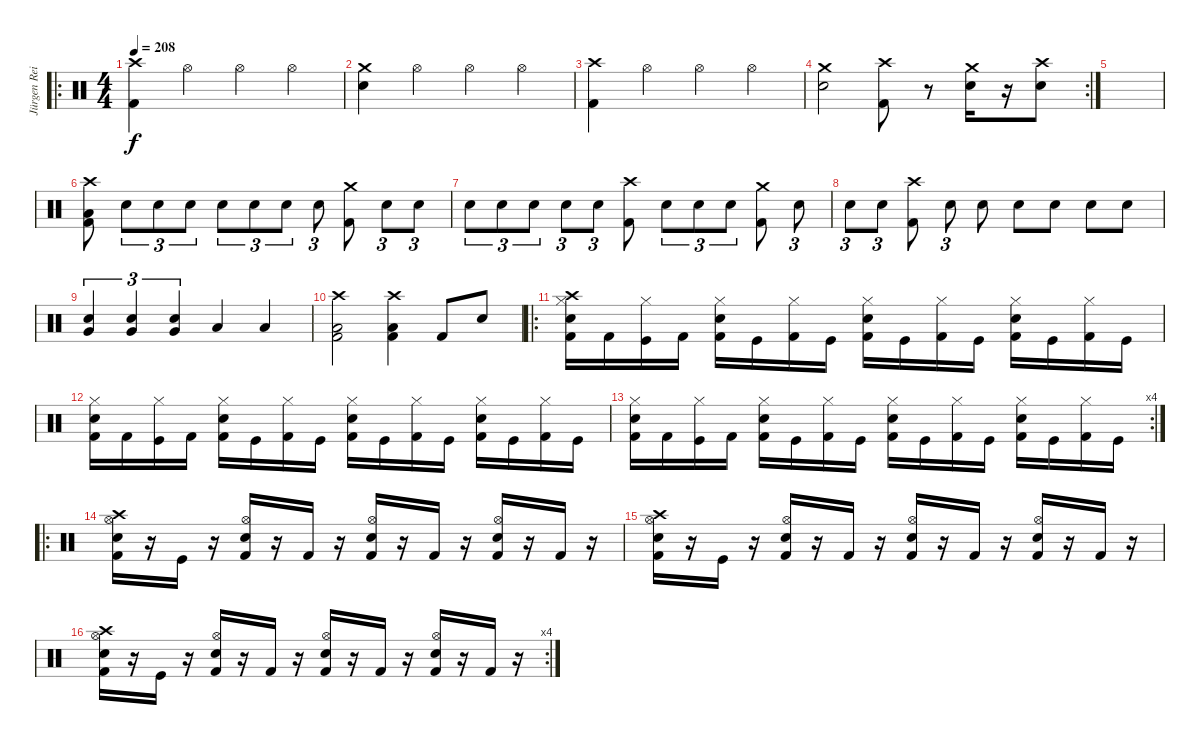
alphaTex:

\track ("Jürgen Reil" "Jürgen Rei") {instrument percussion}
\staff {score}
\articulation defaults
\ro
\ts (4 4)
\tempo 208
\clef neutral
\ks c
("Crash high (hit)" "Kick (hit) 2").4{dy f} "Hi-Hat (open)".4 "Hi-Hat (open)".4 "Hi-Hat (open)".4 |
("Crash medium (hit)" "Electric Snare (hit)").4 "Hi-Hat (open)".4 "Hi-Hat (open)".4 "Hi-Hat (open)".4 |
("Crash high (hit)" "Kick (hit) 2").4 "Hi-Hat (open)".4 "Hi-Hat (open)".4 "Hi-Hat (open)".4 |
\rc 2
("Crash medium (hit)" "Electric Snare (hit)").2 ("Crash high (hit)" "Kick (hit) 2").8 r.8 ("Crash medium (hit)" "Electric Snare (hit)").16 r.16 ("Crash high (hit)" "Electric Snare (hit)").8 |
|
("Crash high (hit)" "Low Floor Tom (hit)" "Kick (hit) 2").8 "Electric Snare (hit)".8{tu (3 2)} "Electric Snare (hit)".8{tu (3 2)} "Electric Snare (hit)".8{tu (3 2)} "Electric Snare (hit)".8{tu (3 2)} "Electric Snare (hit)".8{tu (3 2)} "Electric Snare (hit)".8{tu (3 2)} "Electric Snare (hit)".8{tu (3 2)} ("Crash medium (hit)" "Kick (hit) 2").8 "Electric Snare (hit)".8{tu (3 2)} "Electric Snare (hit)".8{tu (3 2)} |
"Electric Snare (hit)".8{tu (3 2)} "Electric Snare (hit)".8{tu (3 2)} "Electric Snare (hit)".8{tu (3 2)} "Electric Snare (hit)".8{tu (3 2)} "Electric Snare (hit)".8{tu (3 2)} ("Crash high (hit)" "Kick (hit) 2").8 "Electric Snare (hit)".8{tu (3 2)} "Electric Snare (hit)".8{tu (3 2)} "Electric Snare (hit)".8{tu (3 2)} ("Crash medium (hit)" "Kick (hit) 2").8 "Electric Snare (hit)".8{tu (3 2)} |
"Electric Snare (hit)".8{tu (3 2)} "Electric Snare (hit)".8{tu (3 2)} ("Crash high (hit)" "Kick (hit) 2").8 "Electric Snare (hit)".8{tu (3 2)} "Electric Snare (hit)".8 "Electric Snare (hit)".8 "Electric Snare (hit)".8 "Electric Snare (hit)".8 "Electric Snare (hit)".8 |
("Electric Snare (hit)" "Very Low Tom (hit)").4{tu (3 2)} ("Electric Snare (hit)" "Very Low Tom (hit)").4{tu (3 2)} ("Electric Snare (hit)" "Very Low Tom (hit)").4{tu (3 2)} "Low Floor Tom (hit)".4 "Low Floor Tom (hit)".4 |
("Crash high (hit)" "Low Floor Tom (hit)" "Kick (hit) 2").2 ("Crash high (hit)" "Low Floor Tom (hit)" "Kick (hit) 2").4 "Kick (hit) 2".8 "Electric Snare (hit)".8 |
\ro
("Hi-Hat (closed)" "Crash high (hit)" "Electric Snare (hit)" "Kick (hit) 2").16 "Kick (hit) 2".16 ("Hi-Hat (closed)" "Kick (hit)").16 "Kick (hit) 2".16 ("Hi-Hat (closed)" "Electric Snare (hit)" "Kick (hit) 2").16 "Kick (hit)".16 ("Hi-Hat (closed)" "Kick (hit) 2").16 "Kick (hit)".16 ("Hi-Hat (closed)" "Electric Snare (hit)" "Kick (hit) 2").16 "Kick (hit)".16 ("Hi-Hat (closed)" "Kick (hit) 2").16 "Kick (hit)".16 ("Hi-Hat (closed)" "Electric Snare (hit)" "Kick (hit) 2").16 "Kick (hit)".16 ("Hi-Hat (closed)" "Kick (hit) 2").16 "Kick (hit)".16 |
("Hi-Hat (closed)" "Electric Snare (hit)" "Kick (hit) 2").16 "Kick (hit) 2".16 ("Hi-Hat (closed)" "Kick (hit)").16 "Kick (hit) 2".16 ("Hi-Hat (closed)" "Electric Snare (hit)" "Kick (hit) 2").16 "Kick (hit)".16 ("Hi-Hat (closed)" "Kick (hit) 2").16 "Kick (hit)".16 ("Hi-Hat (closed)" "Electric Snare (hit)" "Kick (hit) 2").16 "Kick (hit)".16 ("Hi-Hat (closed)" "Kick (hit) 2").16 "Kick (hit)".16 ("Hi-Hat (closed)" "Electric Snare (hit)" "Kick (hit) 2").16 "Kick (hit)".16 ("Hi-Hat (closed)" "Kick (hit) 2").16 "Kick (hit)".16 |
\rc 4
("Hi-Hat (closed)" "Electric Snare (hit)" "Kick (hit) 2").16 "Kick (hit) 2".16 ("Hi-Hat (closed)" "Kick (hit)").16 "Kick (hit) 2".16 ("Hi-Hat (closed)" "Electric Snare (hit)" "Kick (hit) 2").16 "Kick (hit)".16 ("Hi-Hat (closed)" "Kick (hit) 2").16 "Kick (hit)".16 ("Hi-Hat (closed)" "Electric Snare (hit)" "Kick (hit) 2").16 "Kick (hit)".16 ("Hi-Hat (closed)" "Kick (hit) 2").16 "Kick (hit)".16 ("Hi-Hat (closed)" "Electric Snare (hit)" "Kick (hit) 2").16 "Kick (hit)".16 ("Hi-Hat (closed)" "Kick (hit) 2").16 "Kick (hit)".16 |
\ro
("Hi-Hat (open)" "Crash high (hit)" "Electric Snare (hit)" "Kick (hit) 2").16 r.16 "Kick (hit)".16 r.16 ("Hi-Hat (open)" "Electric Snare (hit)" "Kick (hit) 2").16 r.16 "Kick (hit) 2".16 r.16 ("Hi-Hat (open)" "Electric Snare (hit)" "Kick (hit) 2").16 r.16 "Kick (hit) 2".16 r.16 ("Hi-Hat (open)" "Electric Snare (hit)" "Kick (hit) 2").16 r.16 "Kick (hit) 2".16 r.16 |
("Hi-Hat (open)" "Crash high (hit)" "Electric Snare (hit)" "Kick (hit) 2").16 r.16 "Kick (hit)".16 r.16 ("Hi-Hat (open)" "Electric Snare (hit)" "Kick (hit) 2").16 r.16 "Kick (hit) 2".16 r.16 ("Hi-Hat (open)" "Electric Snare (hit)" "Kick (hit) 2").16 r.16 "Kick (hit) 2".16 r.16 ("Hi-Hat (open)" "Electric Snare (hit)" "Kick (hit) 2").16 r.16 "Kick (hit) 2".16 r.16 |
\rc 4
("Hi-Hat (open)" "Crash high (hit)" "Electric Snare (hit)" "Kick (hit) 2").16 r.16 "Kick (hit)".16 r.16 ("Hi-Hat (open)" "Electric Snare (hit)" "Kick (hit) 2").16 r.16 "Kick (hit) 2".16 r.16 ("Hi-Hat (open)" "Electric Snare (hit)" "Kick (hit) 2").16 r.16 "Kick (hit) 2".16 r.16 ("Hi-Hat (open)" "Electric Snare (hit)" "Kick (hit) 2").16 r.16 "Kick (hit) 2".16 r.16
